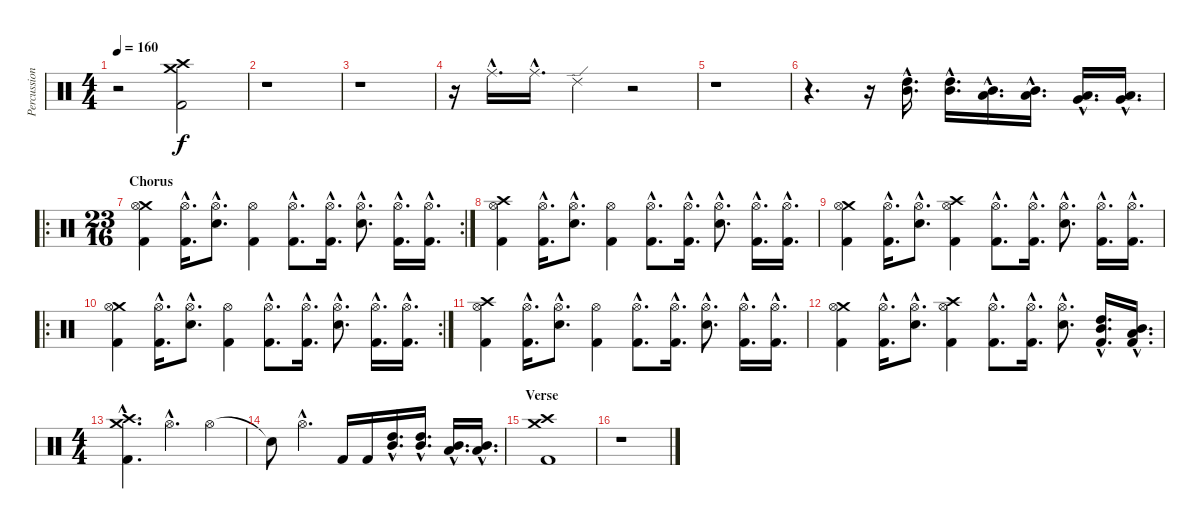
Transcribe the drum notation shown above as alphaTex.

\track ("Percussion" "Percussion") {instrument percussion}
\staff {score}
\articulation defaults
\ts (4 4)
\tempo 160
\clef neutral
\ks c
r.2{dy f} ("Crash medium (hit)" "Crash high (hit)" "Kick (hit) 2").2 |
r.1 |
r.1 |
r.16 "Ride (middle)"{hac}.16{d} "Ride (middle)"{hac}.16{d} "Ride (edge) 2".4 r.2 |
r.1 |
r.4{d} r.16 ("High Tom (hit)"{hac} "Mid Tom (hit)"{hac}).16{d} ("High Tom (hit)"{hac} "Mid Tom (hit)"{hac}).16{d} ("Mid Tom (hit)"{hac} "Low Tom (hit)"{hac}).16{d} ("Mid Tom (hit)"{hac} "Low Tom (hit)"{hac}).16{d} ("Low Tom (hit)"{hac} "Very Low Tom (hit)"{hac}).16{d} ("Low Tom (hit)"{hac} "Very Low Tom (hit)"{hac}).16{d} |
\ro
\rc 2
\ts (23 16)
\section ("" "Chorus")
("Crash medium (hit)" "Hi-Hat (open)" "Kick (hit) 2").4 ("Hi-Hat (open)"{hac} "Kick (hit) 2"{hac}).16{d} ("Hi-Hat (open)"{hac} "Electric Snare (hit)"{hac}).8{d} ("Hi-Hat (open)" "Kick (hit) 2").4 ("Hi-Hat (open)"{hac} "Kick (hit) 2"{hac}).8{d} ("Hi-Hat (open)"{hac} "Kick (hit) 2"{hac}).16{d} ("Hi-Hat (open)"{hac} "Electric Snare (hit)"{hac}).8{d} ("Hi-Hat (open)"{hac} "Kick (hit) 2"{hac}).16{d} ("Hi-Hat (open)"{hac} "Kick (hit) 2"{hac}).16{d} |
("Crash high (hit)" "Hi-Hat (open)" "Kick (hit) 2").4 ("Hi-Hat (open)"{hac} "Kick (hit) 2"{hac}).16{d} ("Hi-Hat (open)"{hac} "Electric Snare (hit)"{hac}).8{d} ("Hi-Hat (open)" "Kick (hit) 2").4 ("Hi-Hat (open)"{hac} "Kick (hit) 2"{hac}).8{d} ("Hi-Hat (open)"{hac} "Kick (hit) 2"{hac}).16{d} ("Hi-Hat (open)"{hac} "Electric Snare (hit)"{hac}).8{d} ("Hi-Hat (open)"{hac} "Kick (hit) 2"{hac}).16{d} ("Hi-Hat (open)"{hac} "Kick (hit) 2"{hac}).16{d} |
("Crash medium (hit)" "Hi-Hat (open)" "Kick (hit) 2").4 ("Hi-Hat (open)"{hac} "Kick (hit) 2"{hac}).16{d} ("Hi-Hat (open)"{hac} "Electric Snare (hit)"{hac}).8{d} ("Crash high (hit)" "Hi-Hat (open)" "Kick (hit) 2").4 ("Hi-Hat (open)"{hac} "Kick (hit) 2"{hac}).8{d} ("Hi-Hat (open)"{hac} "Kick (hit) 2"{hac}).16{d} ("Hi-Hat (open)"{hac} "Electric Snare (hit)"{hac}).8{d} ("Hi-Hat (open)"{hac} "Kick (hit) 2"{hac}).16{d} ("Hi-Hat (open)"{hac} "Kick (hit) 2"{hac}).16{d} |
\ro
\rc 2
("Crash medium (hit)" "Hi-Hat (open)" "Kick (hit) 2").4 ("Hi-Hat (open)"{hac} "Kick (hit) 2"{hac}).16{d} ("Hi-Hat (open)"{hac} "Electric Snare (hit)"{hac}).8{d} ("Hi-Hat (open)" "Kick (hit) 2").4 ("Hi-Hat (open)"{hac} "Kick (hit) 2"{hac}).8{d} ("Hi-Hat (open)"{hac} "Kick (hit) 2"{hac}).16{d} ("Hi-Hat (open)"{hac} "Electric Snare (hit)"{hac}).8{d} ("Hi-Hat (open)"{hac} "Kick (hit) 2"{hac}).16{d} ("Hi-Hat (open)"{hac} "Kick (hit) 2"{hac}).16{d} |
("Crash high (hit)" "Hi-Hat (open)" "Kick (hit) 2").4 ("Hi-Hat (open)"{hac} "Kick (hit) 2"{hac}).16{d} ("Hi-Hat (open)"{hac} "Electric Snare (hit)"{hac}).8{d} ("Hi-Hat (open)" "Kick (hit) 2").4 ("Hi-Hat (open)"{hac} "Kick (hit) 2"{hac}).8{d} ("Hi-Hat (open)"{hac} "Kick (hit) 2"{hac}).16{d} ("Hi-Hat (open)"{hac} "Electric Snare (hit)"{hac}).8{d} ("Hi-Hat (open)"{hac} "Kick (hit) 2"{hac}).16{d} ("Hi-Hat (open)"{hac} "Kick (hit) 2"{hac}).16{d} |
("Crash medium (hit)" "Hi-Hat (open)" "Kick (hit) 2").4 ("Hi-Hat (open)"{hac} "Kick (hit) 2"{hac}).16{d} ("Hi-Hat (open)"{hac} "Electric Snare (hit)"{hac}).8{d} ("Crash high (hit)" "Hi-Hat (open)" "Kick (hit) 2").4 ("Hi-Hat (open)"{hac} "Kick (hit) 2"{hac}).8{d} ("Hi-Hat (open)"{hac} "Kick (hit) 2"{hac}).16{d} ("Hi-Hat (open)"{hac} "Electric Snare (hit)"{hac}).8{d} ("High Tom (hit)"{hac} "Mid Tom (hit)"{hac} "Kick (hit) 2"{hac}).16{d} ("Mid Tom (hit)"{hac} "Low Tom (hit)"{hac} "Kick (hit) 2"{hac}).16{d} |
\ts (4 4)
("Crash medium (hit)"{hac} "Crash high (hit)"{hac} "Kick (hit) 2"{hac}).4{d} "Hi-Hat (open)"{hac}.4{d} "Hi-Hat (open)".4 |
"Snare (hit)"{t}.8 "Hi-Hat (open)"{hac}.4{d} "Kick (hit) 2".16 "Kick (hit) 2".16 ("High Tom (hit)"{hac} "Mid Tom (hit)"{hac}).16{d} ("High Tom (hit)"{hac} "Mid Tom (hit)"{hac}).16{d} ("Mid Tom (hit)"{hac} "Low Tom (hit)"{hac}).16{d} ("Mid Tom (hit)"{hac} "Low Tom (hit)"{hac}).16{d} |
\section ("" "Verse")
("Crash medium (hit)" "Crash high (hit)" "Kick (hit) 2").1 |
r.1
